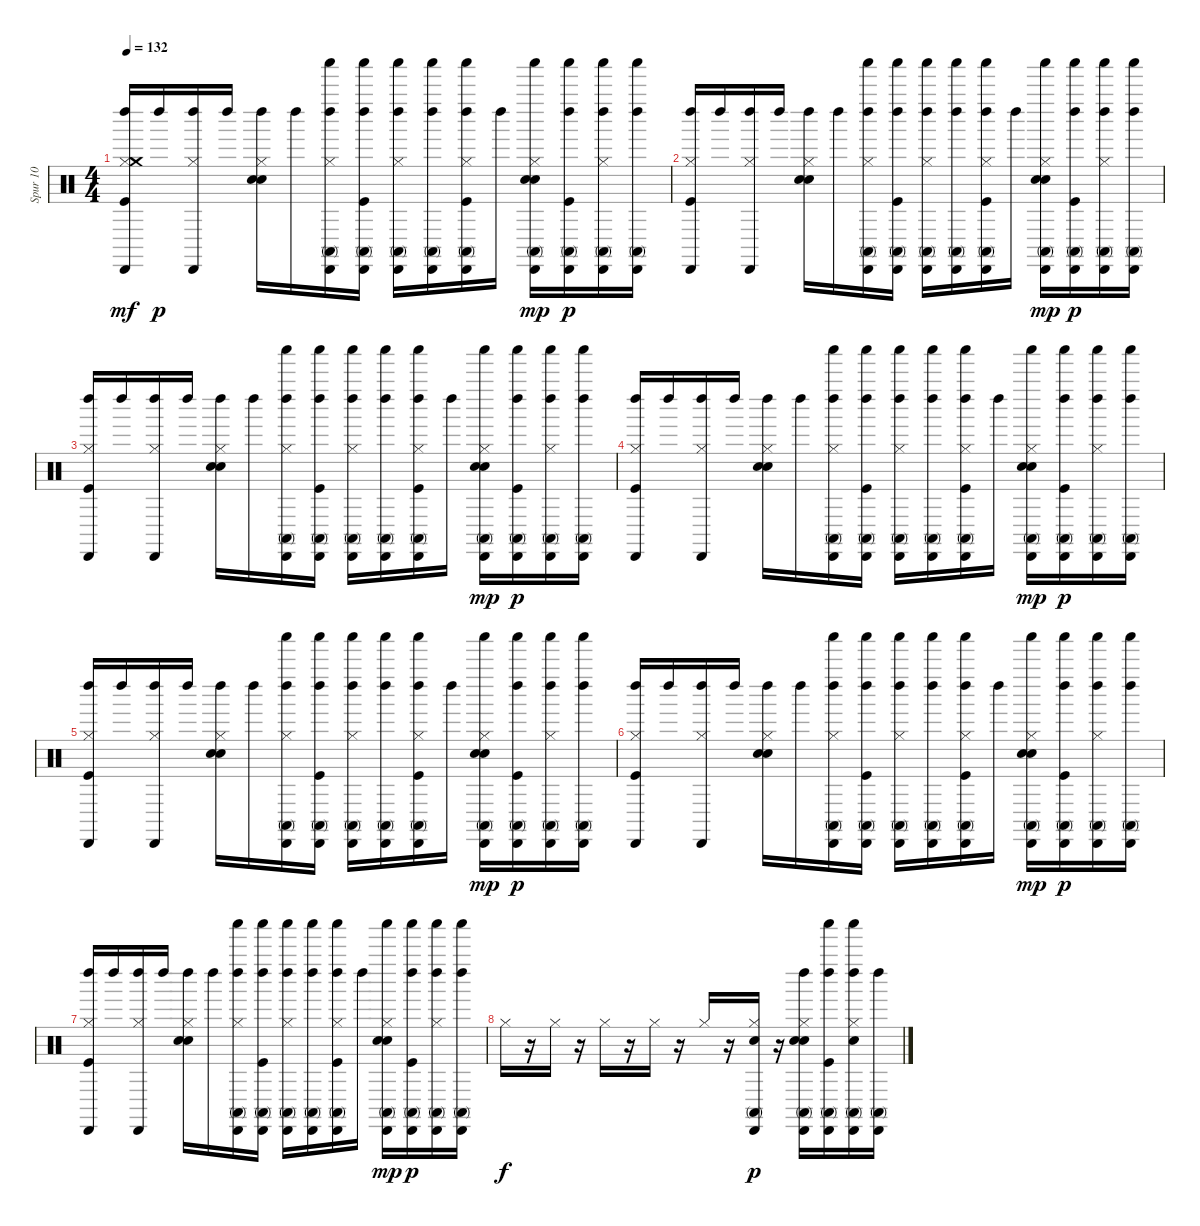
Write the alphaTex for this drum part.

\track ("Spur 10" "Spur 10") {instrument percussion}
\staff {score}
\articulation defaults
\ts (4 4)
\tempo 132
\clef neutral
\ks c
("Kick (hit)" "Hi-Hat (closed)" "Left Maraca (hit)" "Cabasa (hit)" "Crash medium (hit)").16{dy mf} "Left Maraca (hit)".16{dy p} ("Hi-Hat (closed)" "Left Maraca (hit)" "Cabasa (hit)").16 "Left Maraca (hit)".16 ("Hi-Hat (closed)" "Snare (hit) 2" "Hand Clap (hit)" "Left Maraca (hit)").16 "Left Maraca (hit)".16 ("Shaker (hit)" "Hi-Hat (closed)" "Cabasa (hit)" "Conga high (mute)" "Left Maraca (hit)").16 ("Shaker (hit)" "Kick (hit)" "Cabasa (hit)" "Conga high (mute)" "Left Maraca (hit)").16 ("Shaker (hit)" "Hi-Hat (closed)" "Cabasa (hit)" "Conga high (mute)" "Left Maraca (hit)").16 ("Shaker (hit)" "Cabasa (hit)" "Conga high (mute)" "Left Maraca (hit)").16 ("Shaker (hit)" "Kick (hit)" "Hi-Hat (closed)" "Cabasa (hit)" "Conga high (mute)" "Left Maraca (hit)").16 "Left Maraca (hit)".16 ("Shaker (hit)" "Hi-Hat (closed)" "Snare (hit) 2" "Cabasa (hit)" "Conga high (mute)" "Hand Clap (hit)").16{dy mp} ("Shaker (hit)" "Kick (hit)" "Cabasa (hit)" "Conga high (mute)" "Left Maraca (hit)").16{dy p} ("Shaker (hit)" "Hi-Hat (closed)" "Cabasa (hit)" "Conga high (mute)" "Left Maraca (hit)").16 ("Shaker (hit)" "Cabasa (hit)" "Conga high (mute)" "Left Maraca (hit)").16 |
("Kick (hit)" "Hi-Hat (closed)" "Cabasa (hit)" "Left Maraca (hit)").16 "Left Maraca (hit)".16 ("Hi-Hat (closed)" "Cabasa (hit)" "Left Maraca (hit)").16 "Left Maraca (hit)".16 ("Hi-Hat (closed)" "Snare (hit) 2" "Hand Clap (hit)" "Left Maraca (hit)").16 "Left Maraca (hit)".16 ("Shaker (hit)" "Hi-Hat (closed)" "Cabasa (hit)" "Conga high (mute)" "Left Maraca (hit)").16 ("Shaker (hit)" "Kick (hit)" "Cabasa (hit)" "Conga high (mute)" "Left Maraca (hit)").16 ("Shaker (hit)" "Hi-Hat (closed)" "Cabasa (hit)" "Conga high (mute)" "Left Maraca (hit)").16 ("Shaker (hit)" "Cabasa (hit)" "Conga high (mute)" "Left Maraca (hit)").16 ("Shaker (hit)" "Kick (hit)" "Hi-Hat (closed)" "Cabasa (hit)" "Conga high (mute)" "Left Maraca (hit)").16 "Left Maraca (hit)".16 ("Shaker (hit)" "Hi-Hat (closed)" "Snare (hit) 2" "Cabasa (hit)" "Conga high (mute)" "Hand Clap (hit)").16{dy mp} ("Shaker (hit)" "Kick (hit)" "Cabasa (hit)" "Conga high (mute)" "Left Maraca (hit)").16{dy p} ("Shaker (hit)" "Hi-Hat (closed)" "Cabasa (hit)" "Conga high (mute)" "Left Maraca (hit)").16 ("Shaker (hit)" "Cabasa (hit)" "Conga high (mute)" "Left Maraca (hit)").16 |
("Kick (hit)" "Hi-Hat (closed)" "Cabasa (hit)" "Left Maraca (hit)").16 "Left Maraca (hit)".16 ("Hi-Hat (closed)" "Cabasa (hit)" "Left Maraca (hit)").16 "Left Maraca (hit)".16 ("Hi-Hat (closed)" "Snare (hit) 2" "Hand Clap (hit)" "Left Maraca (hit)").16 "Left Maraca (hit)".16 ("Shaker (hit)" "Hi-Hat (closed)" "Conga high (mute)" "Cabasa (hit)" "Left Maraca (hit)").16 ("Shaker (hit)" "Kick (hit)" "Conga high (mute)" "Cabasa (hit)" "Left Maraca (hit)").16 ("Shaker (hit)" "Hi-Hat (closed)" "Conga high (mute)" "Cabasa (hit)" "Left Maraca (hit)").16 ("Shaker (hit)" "Conga high (mute)" "Cabasa (hit)" "Left Maraca (hit)").16 ("Shaker (hit)" "Kick (hit)" "Hi-Hat (closed)" "Conga high (mute)" "Cabasa (hit)" "Left Maraca (hit)").16 "Left Maraca (hit)".16 ("Shaker (hit)" "Hi-Hat (closed)" "Snare (hit) 2" "Conga high (mute)" "Cabasa (hit)" "Hand Clap (hit)").16{dy mp} ("Shaker (hit)" "Kick (hit)" "Conga high (mute)" "Cabasa (hit)" "Left Maraca (hit)").16{dy p} ("Shaker (hit)" "Hi-Hat (closed)" "Conga high (mute)" "Cabasa (hit)" "Left Maraca (hit)").16 ("Shaker (hit)" "Conga high (mute)" "Cabasa (hit)" "Left Maraca (hit)").16 |
("Kick (hit)" "Hi-Hat (closed)" "Cabasa (hit)" "Left Maraca (hit)").16 "Left Maraca (hit)".16 ("Hi-Hat (closed)" "Cabasa (hit)" "Left Maraca (hit)").16 "Left Maraca (hit)".16 ("Hi-Hat (closed)" "Snare (hit) 2" "Hand Clap (hit)" "Left Maraca (hit)").16 "Left Maraca (hit)".16 ("Shaker (hit)" "Hi-Hat (closed)" "Cabasa (hit)" "Conga high (mute)" "Left Maraca (hit)").16 ("Shaker (hit)" "Kick (hit)" "Cabasa (hit)" "Conga high (mute)" "Left Maraca (hit)").16 ("Shaker (hit)" "Hi-Hat (closed)" "Cabasa (hit)" "Conga high (mute)" "Left Maraca (hit)").16 ("Shaker (hit)" "Cabasa (hit)" "Conga high (mute)" "Left Maraca (hit)").16 ("Shaker (hit)" "Kick (hit)" "Hi-Hat (closed)" "Cabasa (hit)" "Conga high (mute)" "Left Maraca (hit)").16 "Left Maraca (hit)".16 ("Shaker (hit)" "Hi-Hat (closed)" "Snare (hit) 2" "Cabasa (hit)" "Conga high (mute)" "Hand Clap (hit)").16{dy mp} ("Shaker (hit)" "Kick (hit)" "Cabasa (hit)" "Conga high (mute)" "Left Maraca (hit)").16{dy p} ("Shaker (hit)" "Hi-Hat (closed)" "Cabasa (hit)" "Conga high (mute)" "Left Maraca (hit)").16 ("Shaker (hit)" "Cabasa (hit)" "Conga high (mute)" "Left Maraca (hit)").16 |
("Kick (hit)" "Hi-Hat (closed)" "Cabasa (hit)" "Left Maraca (hit)").16 "Left Maraca (hit)".16 ("Hi-Hat (closed)" "Cabasa (hit)" "Left Maraca (hit)").16 "Left Maraca (hit)".16 ("Hi-Hat (closed)" "Snare (hit) 2" "Hand Clap (hit)" "Left Maraca (hit)").16 "Left Maraca (hit)".16 ("Shaker (hit)" "Hi-Hat (closed)" "Cabasa (hit)" "Conga high (mute)" "Left Maraca (hit)").16 ("Shaker (hit)" "Kick (hit)" "Cabasa (hit)" "Conga high (mute)" "Left Maraca (hit)").16 ("Shaker (hit)" "Hi-Hat (closed)" "Cabasa (hit)" "Conga high (mute)" "Left Maraca (hit)").16 ("Shaker (hit)" "Cabasa (hit)" "Conga high (mute)" "Left Maraca (hit)").16 ("Shaker (hit)" "Kick (hit)" "Hi-Hat (closed)" "Cabasa (hit)" "Conga high (mute)" "Left Maraca (hit)").16 "Left Maraca (hit)".16 ("Shaker (hit)" "Hi-Hat (closed)" "Snare (hit) 2" "Cabasa (hit)" "Conga high (mute)" "Hand Clap (hit)").16{dy mp} ("Shaker (hit)" "Kick (hit)" "Cabasa (hit)" "Conga high (mute)" "Left Maraca (hit)").16{dy p} ("Shaker (hit)" "Hi-Hat (closed)" "Cabasa (hit)" "Conga high (mute)" "Left Maraca (hit)").16 ("Shaker (hit)" "Cabasa (hit)" "Conga high (mute)" "Left Maraca (hit)").16 |
("Kick (hit)" "Hi-Hat (closed)" "Cabasa (hit)" "Left Maraca (hit)").16 "Left Maraca (hit)".16 ("Hi-Hat (closed)" "Cabasa (hit)" "Left Maraca (hit)").16 "Left Maraca (hit)".16 ("Hi-Hat (closed)" "Snare (hit) 2" "Hand Clap (hit)" "Left Maraca (hit)").16 "Left Maraca (hit)".16 ("Shaker (hit)" "Hi-Hat (closed)" "Conga high (mute)" "Cabasa (hit)" "Left Maraca (hit)").16 ("Shaker (hit)" "Kick (hit)" "Conga high (mute)" "Cabasa (hit)" "Left Maraca (hit)").16 ("Shaker (hit)" "Hi-Hat (closed)" "Conga high (mute)" "Cabasa (hit)" "Left Maraca (hit)").16 ("Shaker (hit)" "Conga high (mute)" "Cabasa (hit)" "Left Maraca (hit)").16 ("Shaker (hit)" "Kick (hit)" "Hi-Hat (closed)" "Conga high (mute)" "Cabasa (hit)" "Left Maraca (hit)").16 "Left Maraca (hit)".16 ("Shaker (hit)" "Hi-Hat (closed)" "Snare (hit) 2" "Conga high (mute)" "Cabasa (hit)" "Hand Clap (hit)").16{dy mp} ("Shaker (hit)" "Kick (hit)" "Conga high (mute)" "Cabasa (hit)" "Left Maraca (hit)").16{dy p} ("Shaker (hit)" "Hi-Hat (closed)" "Conga high (mute)" "Cabasa (hit)" "Left Maraca (hit)").16 ("Shaker (hit)" "Conga high (mute)" "Cabasa (hit)" "Left Maraca (hit)").16 |
("Kick (hit)" "Hi-Hat (closed)" "Cabasa (hit)" "Left Maraca (hit)").16 "Left Maraca (hit)".16 ("Hi-Hat (closed)" "Cabasa (hit)" "Left Maraca (hit)").16 "Left Maraca (hit)".16 ("Hi-Hat (closed)" "Snare (hit) 2" "Hand Clap (hit)" "Left Maraca (hit)").16 "Left Maraca (hit)".16 ("Shaker (hit)" "Hi-Hat (closed)" "Cabasa (hit)" "Conga high (mute)" "Left Maraca (hit)").16 ("Shaker (hit)" "Kick (hit)" "Cabasa (hit)" "Conga high (mute)" "Left Maraca (hit)").16 ("Shaker (hit)" "Hi-Hat (closed)" "Cabasa (hit)" "Conga high (mute)" "Left Maraca (hit)").16 ("Shaker (hit)" "Cabasa (hit)" "Conga high (mute)" "Left Maraca (hit)").16 ("Shaker (hit)" "Kick (hit)" "Hi-Hat (closed)" "Cabasa (hit)" "Conga high (mute)" "Left Maraca (hit)").16 "Left Maraca (hit)".16 ("Shaker (hit)" "Hi-Hat (closed)" "Snare (hit) 2" "Cabasa (hit)" "Conga high (mute)" "Hand Clap (hit)").16{dy mp} ("Shaker (hit)" "Kick (hit)" "Cabasa (hit)" "Conga high (mute)" "Left Maraca (hit)").16{dy p} ("Shaker (hit)" "Hi-Hat (closed)" "Cabasa (hit)" "Conga high (mute)" "Left Maraca (hit)").16 ("Shaker (hit)" "Cabasa (hit)" "Conga high (mute)" "Left Maraca (hit)").16 |
"Hi-Hat (closed)".16{dy f} r.16 "Hi-Hat (closed)".16 r.16 "Hi-Hat (closed)".16 r.16 "Hi-Hat (closed)".16 r.16 "Hi-Hat (closed)".16 r.16 ("Hi-Hat (closed)" "Snare (hit) 2" "Conga high (mute)" "Cabasa (hit)").16{dy p} r.16 ("Hi-Hat (closed)" "Snare (hit) 2" "Conga high (mute)" "Cabasa (hit)" "Hand Clap (hit)" "Left Maraca (hit)").16 ("Shaker (hit)" "Kick (hit)" "Conga high (mute)" "Cabasa (hit)" "Left Maraca (hit)").16 ("Shaker (hit)" "Hi-Hat (closed)" "Electric Snare (hit)" "Conga high (mute)" "Cabasa (hit)" "Left Maraca (hit)").16 ("Cabasa (hit)" "Conga high (mute)" "Left Maraca (hit)").16
